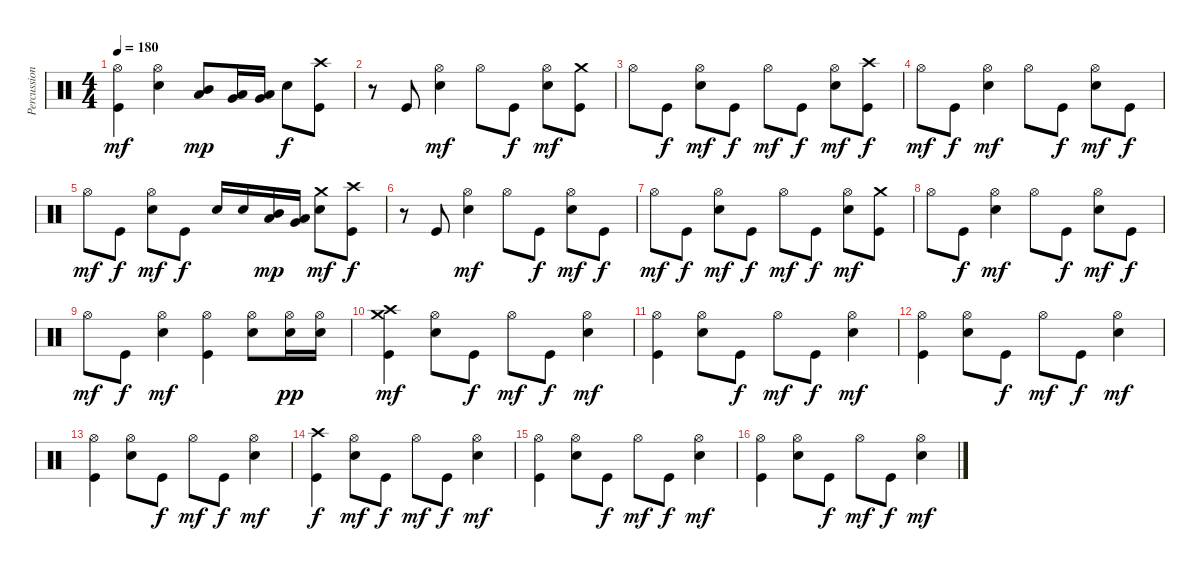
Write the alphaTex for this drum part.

\track ("Percussions" "Percussion") {instrument percussion}
\staff {score}
\articulation defaults
\ts (4 4)
\tempo 180
\clef neutral
\ks c
("Kick (hit)" "Hi-Hat (open)").4{dy mf} ("Electric Snare (hit)" "Hi-Hat (open)").4 ("Low Tom (hit)" "Mid Tom (hit)").8{dy mp} ("Very Low Tom (hit)" "Low Tom (hit)").16 ("Very Low Tom (hit)" "Low Tom (hit)").16 "Electric Snare (hit)".8{dy f} ("Kick (hit)" "Crash high (hit)").8 |
r.8 "Kick (hit)".8 ("Electric Snare (hit)" "Hi-Hat (open)").4{dy mf} "Hi-Hat (open)".8 "Kick (hit)".8{dy f} ("Electric Snare (hit)" "Hi-Hat (open)").8{dy mf} ("Kick (hit)" "Crash medium (hit)").8 |
"Hi-Hat (open)".8 "Kick (hit)".8{dy f} ("Electric Snare (hit)" "Hi-Hat (open)").8{dy mf} "Kick (hit)".8{dy f} "Hi-Hat (open)".8{dy mf} "Kick (hit)".8{dy f} ("Electric Snare (hit)" "Hi-Hat (open)").8{dy mf} ("Kick (hit)" "Crash high (hit)").8{dy f} |
"Hi-Hat (open)".8{dy mf} "Kick (hit)".8{dy f} ("Electric Snare (hit)" "Hi-Hat (open)").4{dy mf} "Hi-Hat (open)".8 "Kick (hit)".8{dy f} ("Electric Snare (hit)" "Hi-Hat (open)").8{dy mf} "Kick (hit)".8{dy f} |
"Hi-Hat (open)".8{dy mf} "Kick (hit)".8{dy f} ("Electric Snare (hit)" "Hi-Hat (open)").8{dy mf} "Kick (hit)".8{dy f} "Electric Snare (hit)".16 "Electric Snare (hit)".16 ("Low Tom (hit)" "Mid Tom (hit)").16{dy mp} ("Very Low Tom (hit)" "Low Tom (hit)").16 ("Electric Snare (hit)" "Crash medium (hit)").8{dy mf} ("Kick (hit)" "Crash high (hit)").8{dy f} |
r.8 "Kick (hit)".8 ("Electric Snare (hit)" "Hi-Hat (open)").4{dy mf} "Hi-Hat (open)".8 "Kick (hit)".8{dy f} ("Electric Snare (hit)" "Hi-Hat (open)").8{dy mf} "Kick (hit)".8{dy f} |
"Hi-Hat (open)".8{dy mf} "Kick (hit)".8{dy f} ("Electric Snare (hit)" "Hi-Hat (open)").8{dy mf} "Kick (hit)".8{dy f} "Hi-Hat (open)".8{dy mf} "Kick (hit)".8{dy f} ("Electric Snare (hit)" "Hi-Hat (open)").8{dy mf} ("Kick (hit)" "Crash medium (hit)").8 |
"Hi-Hat (open)".8 "Kick (hit)".8{dy f} ("Electric Snare (hit)" "Hi-Hat (open)").4{dy mf} "Hi-Hat (open)".8 "Kick (hit)".8{dy f} ("Electric Snare (hit)" "Hi-Hat (open)").8{dy mf} "Kick (hit)".8{dy f} |
"Hi-Hat (open)".8{dy mf} "Kick (hit)".8{dy f} ("Electric Snare (hit)" "Hi-Hat (open)").4{dy mf} ("Kick (hit)" "Hi-Hat (open)").4 ("Electric Snare (hit)" "Hi-Hat (open)").8 ("Electric Snare (hit)" "Hi-Hat (open)").16{dy pp} ("Electric Snare (hit)" "Hi-Hat (open)").16 |
("Kick (hit)" "Crash high (hit)" "Crash medium (hit)").4{dy mf} ("Electric Snare (hit)" "Hi-Hat (open)").8 "Kick (hit)".8{dy f} "Hi-Hat (open)".8{dy mf} "Kick (hit)".8{dy f} ("Electric Snare (hit)" "Hi-Hat (open)").4{dy mf} |
("Kick (hit)" "Hi-Hat (open)").4 ("Electric Snare (hit)" "Hi-Hat (open)").8 "Kick (hit)".8{dy f} "Hi-Hat (open)".8{dy mf} "Kick (hit)".8{dy f} ("Electric Snare (hit)" "Hi-Hat (open)").4{dy mf} |
("Kick (hit)" "Hi-Hat (open)").4 ("Electric Snare (hit)" "Hi-Hat (open)").8 "Kick (hit)".8{dy f} "Hi-Hat (open)".8{dy mf} "Kick (hit)".8{dy f} ("Electric Snare (hit)" "Hi-Hat (open)").4{dy mf} |
("Kick (hit)" "Hi-Hat (open)").4 ("Electric Snare (hit)" "Hi-Hat (open)").8 "Kick (hit)".8{dy f} "Hi-Hat (open)".8{dy mf} "Kick (hit)".8{dy f} ("Electric Snare (hit)" "Hi-Hat (open)").4{dy mf} |
("Kick (hit)" "Crash high (hit)").4{dy f} ("Electric Snare (hit)" "Hi-Hat (open)").8{dy mf} "Kick (hit)".8{dy f} "Hi-Hat (open)".8{dy mf} "Kick (hit)".8{dy f} ("Electric Snare (hit)" "Hi-Hat (open)").4{dy mf} |
("Kick (hit)" "Hi-Hat (open)").4 ("Electric Snare (hit)" "Hi-Hat (open)").8 "Kick (hit)".8{dy f} "Hi-Hat (open)".8{dy mf} "Kick (hit)".8{dy f} ("Electric Snare (hit)" "Hi-Hat (open)").4{dy mf} |
("Kick (hit)" "Hi-Hat (open)").4 ("Electric Snare (hit)" "Hi-Hat (open)").8 "Kick (hit)".8{dy f} "Hi-Hat (open)".8{dy mf} "Kick (hit)".8{dy f} ("Electric Snare (hit)" "Hi-Hat (open)").4{dy mf}
